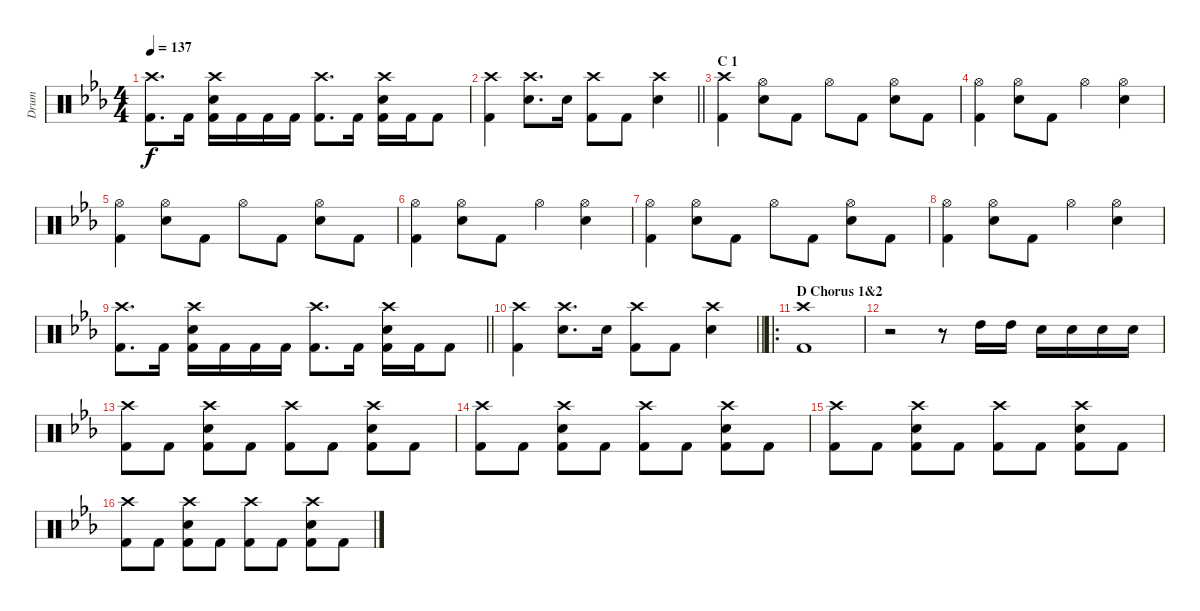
\track ("Drum" "Drum") {instrument percussion}
\staff {score}
\articulation defaults
\ts (4 4)
\tempo 137
\clef neutral
\ks eb
("Crash high (hit)" "Kick (hit) 2").8{d dy f} "Kick (hit) 2".16 ("Crash high (hit)" "Snare (hit) 2" "Kick (hit) 2").16 "Kick (hit) 2".16 "Kick (hit) 2".16 "Kick (hit) 2".16 ("Crash high (hit)" "Kick (hit) 2").8{d} "Kick (hit) 2".16 ("Crash high (hit)" "Snare (hit) 2" "Kick (hit) 2").16 "Kick (hit) 2".16 "Kick (hit) 2".8 |
\barLineRight lightlight
("Crash high (hit)" "Kick (hit) 2").4 ("Crash high (hit)" "Snare (hit) 2").8{d} "Snare (hit) 2".16 ("Crash high (hit)" "Kick (hit) 2").8 "Kick (hit) 2".8 ("Crash high (hit)" "Snare (hit) 2").4 |
\section ("" "C 1")
("Crash high (hit)" "Kick (hit) 2").4 ("Hi-Hat (open)" "Snare (hit) 2").8 "Kick (hit) 2".8 "Hi-Hat (open)".8 "Kick (hit) 2".8 ("Hi-Hat (open)" "Snare (hit) 2").8 "Kick (hit) 2".8 |
("Hi-Hat (open)" "Kick (hit) 2").4 ("Hi-Hat (open)" "Snare (hit) 2").8 "Kick (hit) 2".8 "Hi-Hat (open)".4 ("Hi-Hat (open)" "Snare (hit) 2").4 |
("Hi-Hat (open)" "Kick (hit) 2").4 ("Hi-Hat (open)" "Snare (hit) 2").8 "Kick (hit) 2".8 "Hi-Hat (open)".8 "Kick (hit) 2".8 ("Hi-Hat (open)" "Snare (hit) 2").8 "Kick (hit) 2".8 |
("Hi-Hat (open)" "Kick (hit) 2").4 ("Hi-Hat (open)" "Snare (hit) 2").8 "Kick (hit) 2".8 "Hi-Hat (open)".4 ("Hi-Hat (open)" "Snare (hit) 2").4 |
("Hi-Hat (open)" "Kick (hit) 2").4 ("Hi-Hat (open)" "Snare (hit) 2").8 "Kick (hit) 2".8 "Hi-Hat (open)".8 "Kick (hit) 2".8 ("Hi-Hat (open)" "Snare (hit) 2").8 "Kick (hit) 2".8 |
("Hi-Hat (open)" "Kick (hit) 2").4 ("Hi-Hat (open)" "Snare (hit) 2").8 "Kick (hit) 2".8 "Hi-Hat (open)".4 ("Hi-Hat (open)" "Snare (hit) 2").4 |
\barLineRight lightlight
("Crash high (hit)" "Kick (hit) 2").8{d} "Kick (hit) 2".16 ("Crash high (hit)" "Snare (hit) 2" "Kick (hit) 2").16 "Kick (hit) 2".16 "Kick (hit) 2".16 "Kick (hit) 2".16 ("Crash high (hit)" "Kick (hit) 2").8{d} "Kick (hit) 2".16 ("Crash high (hit)" "Snare (hit) 2" "Kick (hit) 2").16 "Kick (hit) 2".16 "Kick (hit) 2".8 |
\barLineRight lightlight
("Crash high (hit)" "Kick (hit) 2").4 ("Crash high (hit)" "Snare (hit) 2").8{d} "Snare (hit) 2".16 ("Crash high (hit)" "Kick (hit) 2").8 "Kick (hit) 2".8 ("Crash high (hit)" "Snare (hit) 2").4 |
\ro
\section ("" "D Chorus 1&2")
("Crash high (hit)" "Kick (hit) 2").1 |
r.2 r.8 "High Tom (hit)".16 "High Tom (hit)".16 "Snare (hit) 2".16 "Snare (hit) 2".16 "Snare (hit) 2".16 "Snare (hit) 2".16 |
("Crash high (hit)" "Kick (hit) 2").8 "Kick (hit) 2".8 ("Crash high (hit)" "Snare (hit) 2" "Kick (hit) 2").8 "Kick (hit) 2".8 ("Crash high (hit)" "Kick (hit) 2").8 "Kick (hit) 2".8 ("Crash high (hit)" "Snare (hit) 2" "Kick (hit) 2").8 "Kick (hit) 2".8 |
("Crash high (hit)" "Kick (hit) 2").8 "Kick (hit) 2".8 ("Crash high (hit)" "Snare (hit) 2" "Kick (hit) 2").8 "Kick (hit) 2".8 ("Crash high (hit)" "Kick (hit) 2").8 "Kick (hit) 2".8 ("Crash high (hit)" "Snare (hit) 2" "Kick (hit) 2").8 "Kick (hit) 2".8 |
("Crash high (hit)" "Kick (hit) 2").8 "Kick (hit) 2".8 ("Crash high (hit)" "Snare (hit) 2" "Kick (hit) 2").8 "Kick (hit) 2".8 ("Crash high (hit)" "Kick (hit) 2").8 "Kick (hit) 2".8 ("Crash high (hit)" "Snare (hit) 2" "Kick (hit) 2").8 "Kick (hit) 2".8 |
("Crash high (hit)" "Kick (hit) 2").8 "Kick (hit) 2".8 ("Crash high (hit)" "Snare (hit) 2" "Kick (hit) 2").8 "Kick (hit) 2".8 ("Crash high (hit)" "Kick (hit) 2").8 "Kick (hit) 2".8 ("Crash high (hit)" "Snare (hit) 2" "Kick (hit) 2").8 "Kick (hit) 2".8
